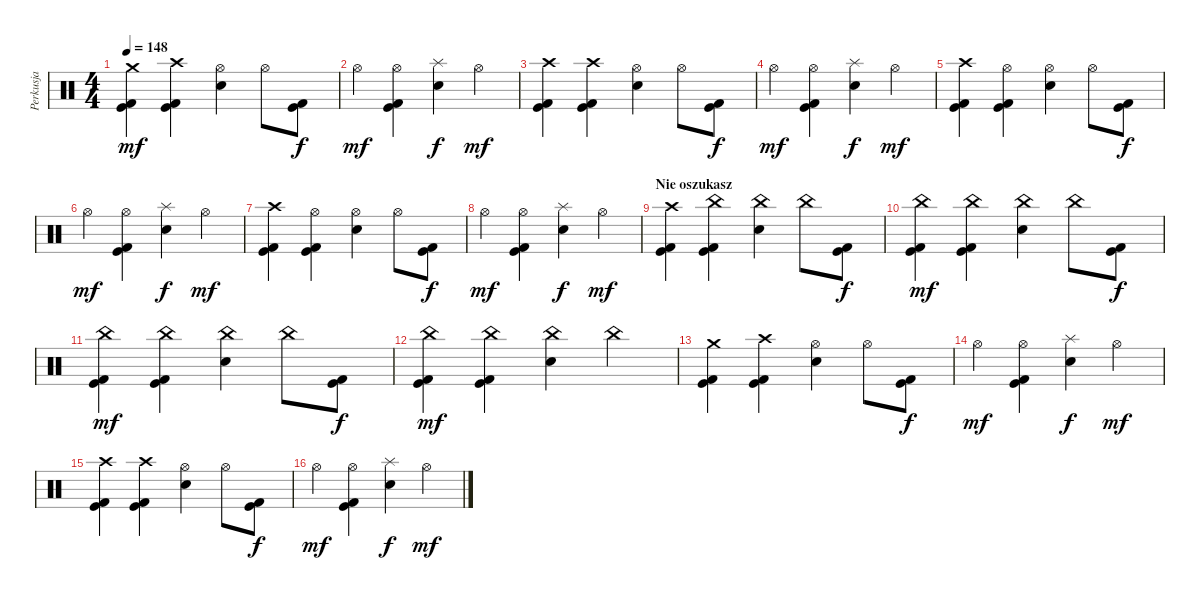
\track ("Perkusja" "Perkusja") {instrument percussion}
\staff {score}
\articulation defaults
\ts (4 4)
\tempo 148
\clef neutral
\ks c
("Kick (hit) 2" "Kick (hit)" "Crash medium (hit)").4{dy mf} ("Kick (hit) 2" "Kick (hit)" "Crash high (hit)").4 ("Snare (hit) 2" "Hi-Hat (open)").4 "Hi-Hat (open)".8 ("Kick (hit) 2" "Kick (hit)").8{dy f} |
"Hi-Hat (open)".4{dy mf} ("Kick (hit)" "Kick (hit) 2" "Hi-Hat (open)").4 ("Snare (hit) 2" "Splash (hit)").4{dy f} "Hi-Hat (open)".4{dy mf} |
("Kick (hit) 2" "Kick (hit)" "Crash high (hit)").4 ("Kick (hit) 2" "Kick (hit)" "Crash high (hit)").4 ("Snare (hit) 2" "Hi-Hat (open)").4 "Hi-Hat (open)".8 ("Kick (hit) 2" "Kick (hit)").8{dy f} |
"Hi-Hat (open)".4{dy mf} ("Kick (hit)" "Kick (hit) 2" "Hi-Hat (open)").4 ("Snare (hit) 2" "Splash (hit)").4{dy f} "Hi-Hat (open)".4{dy mf} |
("Kick (hit) 2" "Kick (hit)" "Crash high (hit)").4 ("Kick (hit) 2" "Kick (hit)" "Hi-Hat (open)").4 ("Snare (hit) 2" "Hi-Hat (open)").4 "Hi-Hat (open)".8 ("Kick (hit) 2" "Kick (hit)").8{dy f} |
"Hi-Hat (open)".4{dy mf} ("Kick (hit)" "Kick (hit) 2" "Hi-Hat (open)").4 ("Snare (hit) 2" "Splash (hit)").4{dy f} "Hi-Hat (open)".4{dy mf} |
("Kick (hit) 2" "Kick (hit)" "Crash high (hit)").4 ("Kick (hit) 2" "Kick (hit)" "Hi-Hat (open)").4 ("Snare (hit) 2" "Hi-Hat (open)").4 "Hi-Hat (open)".8 ("Kick (hit) 2" "Kick (hit)").8{dy f} |
"Hi-Hat (open)".4{dy mf} ("Kick (hit)" "Kick (hit) 2" "Hi-Hat (open)").4 ("Snare (hit) 2" "Splash (hit)").4{dy f} "Hi-Hat (open)".4{dy mf} |
\section ("" "Nie oszukasz")
("Kick (hit) 2" "Kick (hit)" "Crash high (hit)").4 ("Kick (hit) 2" "Kick (hit)" "China (hit)").4 ("Snare (hit) 2" "China (hit)").4 "China (hit)".8 ("Kick (hit) 2" "Kick (hit)").8{dy f} |
("Kick (hit) 2" "Kick (hit)" "China (hit)").4{dy mf} ("Kick (hit) 2" "Kick (hit)" "China (hit)").4 ("Snare (hit) 2" "China (hit)").4 "China (hit)".8 ("Kick (hit) 2" "Kick (hit)").8{dy f} |
("Kick (hit) 2" "Kick (hit)" "China (hit)").4{dy mf} ("Kick (hit) 2" "Kick (hit)" "China (hit)").4 ("Snare (hit) 2" "China (hit)").4 "China (hit)".8 ("Kick (hit) 2" "Kick (hit)").8{dy f} |
("Kick (hit) 2" "Kick (hit)" "China (hit)").4{dy mf} ("Kick (hit) 2" "Kick (hit)" "China (hit)").4 ("Snare (hit) 2" "China (hit)").4 "China (hit)".4 |
("Kick (hit) 2" "Kick (hit)" "Crash medium (hit)").4 ("Kick (hit) 2" "Kick (hit)" "Crash high (hit)").4 ("Snare (hit) 2" "Hi-Hat (open)").4 "Hi-Hat (open)".8 ("Kick (hit) 2" "Kick (hit)").8{dy f} |
"Hi-Hat (open)".4{dy mf} ("Kick (hit)" "Kick (hit) 2" "Hi-Hat (open)").4 ("Snare (hit) 2" "Splash (hit)").4{dy f} "Hi-Hat (open)".4{dy mf} |
("Kick (hit) 2" "Kick (hit)" "Crash high (hit)").4 ("Kick (hit) 2" "Kick (hit)" "Crash high (hit)").4 ("Snare (hit) 2" "Hi-Hat (open)").4 "Hi-Hat (open)".8 ("Kick (hit) 2" "Kick (hit)").8{dy f} |
"Hi-Hat (open)".4{dy mf} ("Kick (hit)" "Kick (hit) 2" "Hi-Hat (open)").4 ("Snare (hit) 2" "Splash (hit)").4{dy f} "Hi-Hat (open)".4{dy mf}
